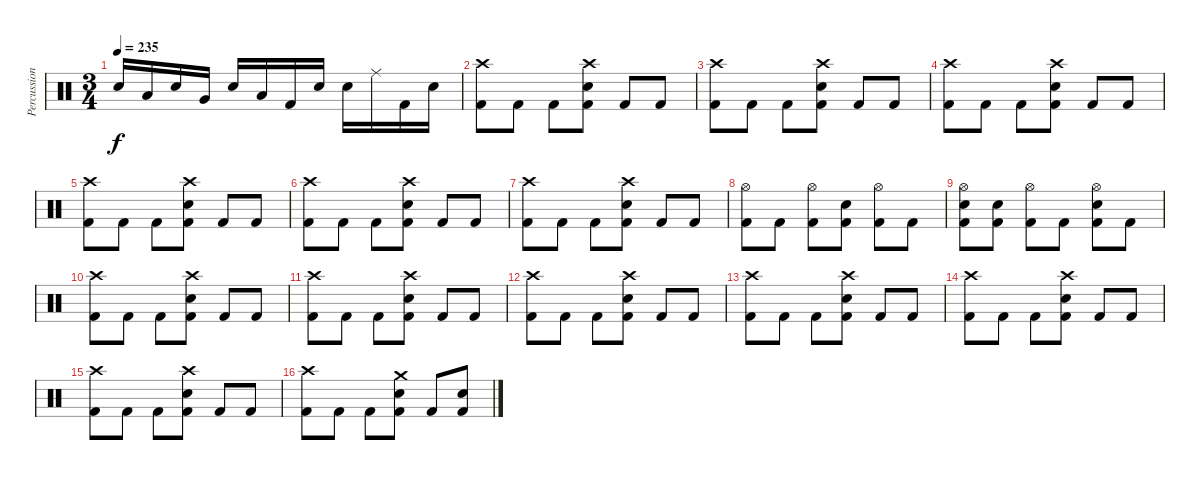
\track ("Percussion" "Percussion") {instrument percussion}
\staff {score}
\articulation defaults
\ts (3 4)
\tempo 235
\clef neutral
\ks c "Electric Snare (hit)".16{dy f} "Low Tom (hit)".16 "Electric Snare (hit)".16 "Very Low Tom (hit)".16 "Electric Snare (hit)".16 "Low Floor Tom (hit)".16 "Kick (hit) 2".16 "Electric Snare (hit)".16 "Electric Snare (hit)".16 "Ride (middle)".16 "Kick (hit) 2".16 "Electric Snare (hit)".16
|
("Crash high (hit)" "Kick (hit) 2").8 "Kick (hit) 2".8 "Kick (hit) 2".8 ("Crash high (hit)" "Electric Snare (hit)" "Kick (hit) 2").8 "Kick (hit) 2".8 "Kick (hit) 2".8 |
("Crash high (hit)" "Kick (hit) 2").8 "Kick (hit) 2".8 "Kick (hit) 2".8 ("Crash high (hit)" "Electric Snare (hit)" "Kick (hit) 2").8 "Kick (hit) 2".8 "Kick (hit) 2".8 |
("Crash high (hit)" "Kick (hit) 2").8 "Kick (hit) 2".8 "Kick (hit) 2".8 ("Crash high (hit)" "Electric Snare (hit)" "Kick (hit) 2").8 "Kick (hit) 2".8 "Kick (hit) 2".8 |
("Crash high (hit)" "Kick (hit) 2").8 "Kick (hit) 2".8 "Kick (hit) 2".8 ("Crash high (hit)" "Electric Snare (hit)" "Kick (hit) 2").8 "Kick (hit) 2".8 "Kick (hit) 2".8 |
("Crash high (hit)" "Kick (hit) 2").8 "Kick (hit) 2".8 "Kick (hit) 2".8 ("Crash high (hit)" "Electric Snare (hit)" "Kick (hit) 2").8 "Kick (hit) 2".8 "Kick (hit) 2".8 |
("Crash high (hit)" "Kick (hit) 2").8 "Kick (hit) 2".8 "Kick (hit) 2".8 ("Crash high (hit)" "Electric Snare (hit)" "Kick (hit) 2").8 "Kick (hit) 2".8 "Kick (hit) 2".8 |
("Hi-Hat (open)" "Kick (hit) 2").8 "Kick (hit) 2".8 ("Hi-Hat (open)" "Kick (hit) 2").8 ("Electric Snare (hit)" "Kick (hit) 2").8 ("Hi-Hat (open)" "Kick (hit) 2").8 "Kick (hit) 2".8 |
("Hi-Hat (open)" "Electric Snare (hit)" "Kick (hit) 2").8 ("Electric Snare (hit)" "Kick (hit) 2").8 ("Hi-Hat (open)" "Kick (hit) 2").8 "Kick (hit) 2".8 ("Hi-Hat (open)" "Electric Snare (hit)" "Kick (hit) 2").8 "Kick (hit) 2".8 |
("Crash high (hit)" "Kick (hit) 2").8 "Kick (hit) 2".8 "Kick (hit) 2".8 ("Crash high (hit)" "Electric Snare (hit)" "Kick (hit) 2").8 "Kick (hit) 2".8 "Kick (hit) 2".8 |
("Crash high (hit)" "Kick (hit) 2").8 "Kick (hit) 2".8 "Kick (hit) 2".8 ("Crash high (hit)" "Electric Snare (hit)" "Kick (hit) 2").8 "Kick (hit) 2".8 "Kick (hit) 2".8 |
("Crash high (hit)" "Kick (hit) 2").8 "Kick (hit) 2".8 "Kick (hit) 2".8 ("Crash high (hit)" "Electric Snare (hit)" "Kick (hit) 2").8 "Kick (hit) 2".8 "Kick (hit) 2".8 |
("Crash high (hit)" "Kick (hit) 2").8 "Kick (hit) 2".8 "Kick (hit) 2".8 ("Crash high (hit)" "Electric Snare (hit)" "Kick (hit) 2").8 "Kick (hit) 2".8 "Kick (hit) 2".8 |
("Crash high (hit)" "Kick (hit) 2").8 "Kick (hit) 2".8 "Kick (hit) 2".8 ("Crash high (hit)" "Electric Snare (hit)" "Kick (hit) 2").8 "Kick (hit) 2".8 "Kick (hit) 2".8 |
("Crash high (hit)" "Kick (hit) 2").8 "Kick (hit) 2".8 "Kick (hit) 2".8 ("Crash high (hit)" "Electric Snare (hit)" "Kick (hit) 2").8 "Kick (hit) 2".8 "Kick (hit) 2".8 |
("Crash high (hit)" "Kick (hit) 2").8 "Kick (hit) 2".8 "Kick (hit) 2".8 ("Crash medium (hit)" "Electric Snare (hit)" "Kick (hit) 2").8 "Kick (hit) 2".8 ("Electric Snare (hit)" "Kick (hit) 2").8
